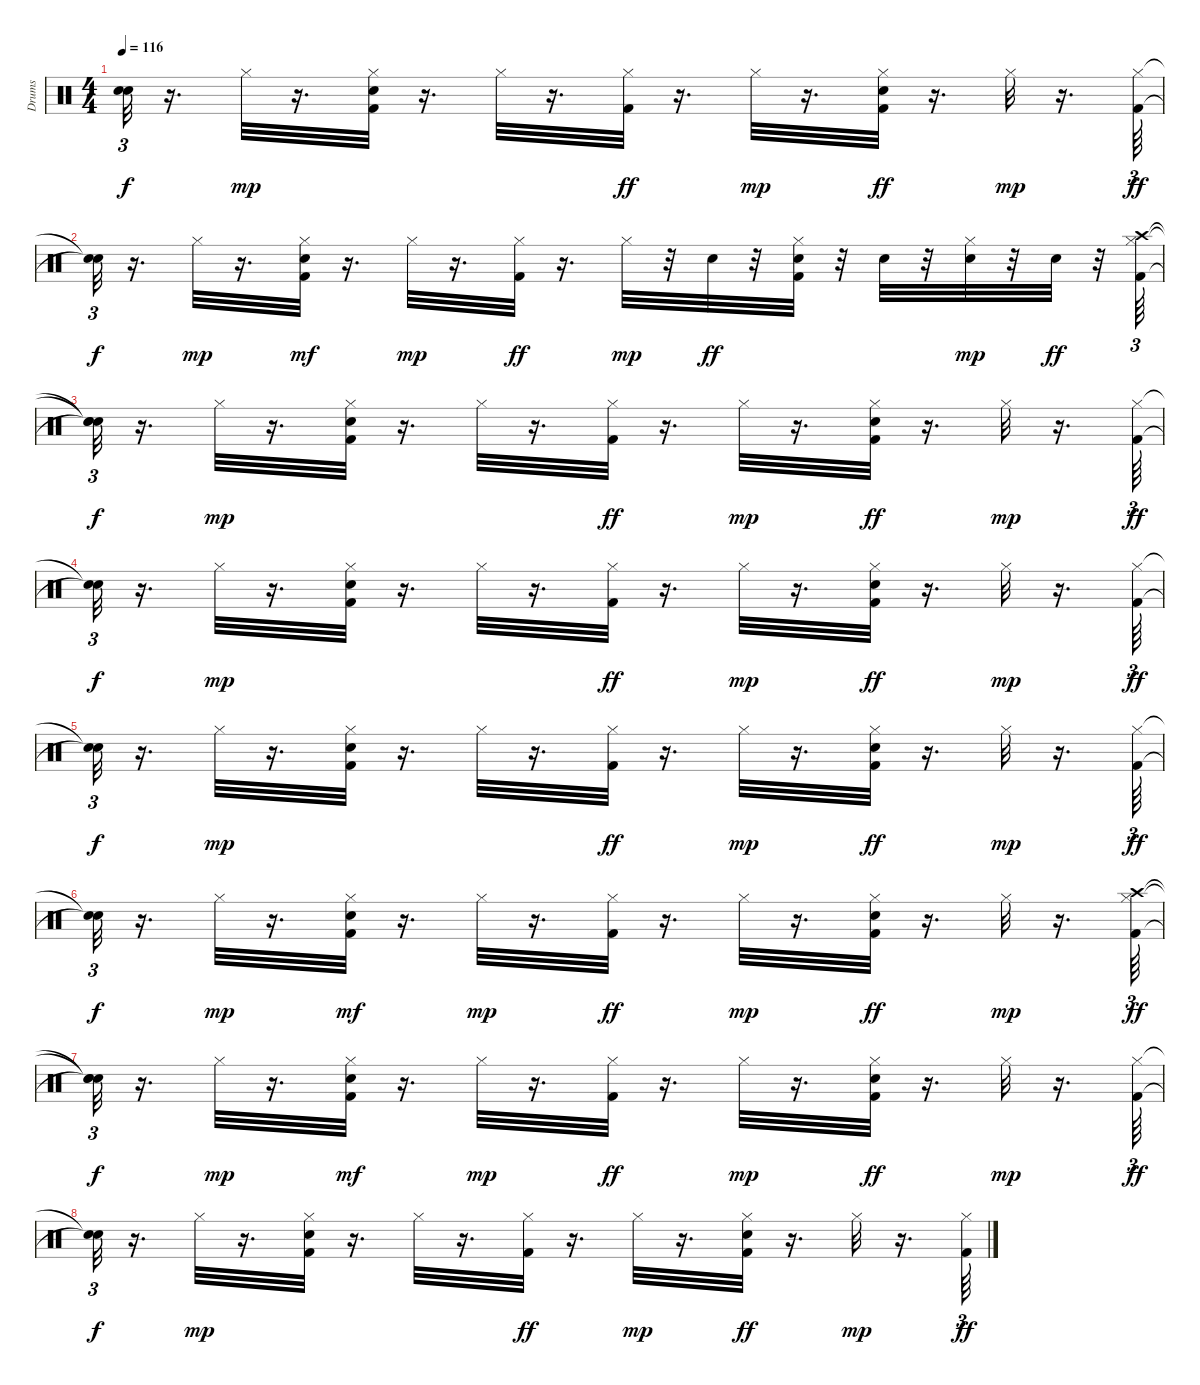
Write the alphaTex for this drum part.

\track ("Drums   " "Drums   ") {instrument percussion}
\staff {score}
\articulation defaults
\ts (4 4)
\tempo 116
\clef neutral
\ks c
("Snare (hit)"{t} "Snare (hit)"{t}).32{tu (3 2) dy f} r.16{d} "Hi-Hat (closed)".32{dy mp} r.16{d} ("Kick (hit) 2" "Snare (hit) 2" "Hi-Hat (closed)").32 r.16{d} "Hi-Hat (closed)".32 r.16{d} ("Hi-Hat (closed)" "Kick (hit) 2").32{dy ff} r.16{d} "Hi-Hat (closed)".32{dy mp} r.16{d} ("Kick (hit) 2" "Hi-Hat (closed)" "Snare (hit) 2").32{dy ff} r.16{d} "Hi-Hat (closed)".32{dy mp} r.16{d} ("Hi-Hat (closed)" "Kick (hit) 2").64{tu (3 2) dy ff} |
("Snare (hit)"{t} "Snare (hit)"{t}).32{tu (3 2) dy f} r.16{d} "Hi-Hat (closed)".32{dy mp} r.16{d} ("Kick (hit) 2" "Snare (hit) 2" "Hi-Hat (closed)").32{dy mf} r.16{d} "Hi-Hat (closed)".32{dy mp} r.16{d} ("Hi-Hat (closed)" "Kick (hit) 2").32{dy ff} r.16{d} "Hi-Hat (closed)".32{dy mp} r.32 "Snare (hit) 2".32{dy ff} r.32 ("Kick (hit) 2" "Hi-Hat (closed)" "Snare (hit) 2").32 r.32 "Snare (hit) 2".32 r.32 ("Snare (hit) 2" "Hi-Hat (closed)").32{dy mp} r.32 "Snare (hit) 2".32{dy ff} r.32 ("Crash high (hit)" "Hi-Hat (closed)" "Kick (hit) 2").64{tu (3 2)} |
("Snare (hit)"{t} "Snare (hit)"{t} "Snare (hit)"{t}).32{tu (3 2) dy f} r.16{d} "Hi-Hat (closed)".32{dy mp} r.16{d} ("Kick (hit) 2" "Snare (hit) 2" "Hi-Hat (closed)").32 r.16{d} "Hi-Hat (closed)".32 r.16{d} ("Hi-Hat (closed)" "Kick (hit) 2").32{dy ff} r.16{d} "Hi-Hat (closed)".32{dy mp} r.16{d} ("Kick (hit) 2" "Hi-Hat (closed)" "Snare (hit) 2").32{dy ff} r.16{d} "Hi-Hat (closed)".32{dy mp} r.16{d} ("Hi-Hat (closed)" "Kick (hit) 2").64{tu (3 2) dy ff} |
("Snare (hit)"{t} "Snare (hit)"{t}).32{tu (3 2) dy f} r.16{d} "Hi-Hat (closed)".32{dy mp} r.16{d} ("Kick (hit) 2" "Snare (hit) 2" "Hi-Hat (closed)").32 r.16{d} "Hi-Hat (closed)".32 r.16{d} ("Hi-Hat (closed)" "Kick (hit) 2").32{dy ff} r.16{d} "Hi-Hat (closed)".32{dy mp} r.16{d} ("Kick (hit) 2" "Hi-Hat (closed)" "Snare (hit) 2").32{dy ff} r.16{d} "Hi-Hat (closed)".32{dy mp} r.16{d} ("Hi-Hat (closed)" "Kick (hit) 2").64{tu (3 2) dy ff} |
("Snare (hit)"{t} "Snare (hit)"{t}).32{tu (3 2) dy f} r.16{d} "Hi-Hat (closed)".32{dy mp} r.16{d} ("Kick (hit) 2" "Snare (hit) 2" "Hi-Hat (closed)").32 r.16{d} "Hi-Hat (closed)".32 r.16{d} ("Hi-Hat (closed)" "Kick (hit) 2").32{dy ff} r.16{d} "Hi-Hat (closed)".32{dy mp} r.16{d} ("Kick (hit) 2" "Hi-Hat (closed)" "Snare (hit) 2").32{dy ff} r.16{d} "Hi-Hat (closed)".32{dy mp} r.16{d} ("Hi-Hat (closed)" "Kick (hit) 2").64{tu (3 2) dy ff} |
("Snare (hit)"{t} "Snare (hit)"{t}).32{tu (3 2) dy f} r.16{d} "Hi-Hat (closed)".32{dy mp} r.16{d} ("Kick (hit) 2" "Snare (hit) 2" "Hi-Hat (closed)").32{dy mf} r.16{d} "Hi-Hat (closed)".32{dy mp} r.16{d} ("Hi-Hat (closed)" "Kick (hit) 2").32{dy ff} r.16{d} "Hi-Hat (closed)".32{dy mp} r.16{d} ("Kick (hit) 2" "Hi-Hat (closed)" "Snare (hit) 2").32{dy ff} r.16{d} "Hi-Hat (closed)".32{dy mp} r.16{d} ("Crash high (hit)" "Hi-Hat (closed)" "Kick (hit) 2").64{tu (3 2) dy ff} |
("Snare (hit)"{t} "Snare (hit)"{t} "Snare (hit)"{t}).32{tu (3 2) dy f} r.16{d} "Hi-Hat (closed)".32{dy mp} r.16{d} ("Kick (hit) 2" "Snare (hit) 2" "Hi-Hat (closed)").32{dy mf} r.16{d} "Hi-Hat (closed)".32{dy mp} r.16{d} ("Hi-Hat (closed)" "Kick (hit) 2").32{dy ff} r.16{d} "Hi-Hat (closed)".32{dy mp} r.16{d} ("Kick (hit) 2" "Hi-Hat (closed)" "Snare (hit) 2").32{dy ff} r.16{d} "Hi-Hat (closed)".32{dy mp} r.16{d} ("Hi-Hat (closed)" "Kick (hit) 2").64{tu (3 2) dy ff} |
("Snare (hit)"{t} "Snare (hit)"{t}).32{tu (3 2) dy f} r.16{d} "Hi-Hat (closed)".32{dy mp} r.16{d} ("Kick (hit) 2" "Snare (hit) 2" "Hi-Hat (closed)").32 r.16{d} "Hi-Hat (closed)".32 r.16{d} ("Hi-Hat (closed)" "Kick (hit) 2").32{dy ff} r.16{d} "Hi-Hat (closed)".32{dy mp} r.16{d} ("Kick (hit) 2" "Hi-Hat (closed)" "Snare (hit) 2").32{dy ff} r.16{d} "Hi-Hat (closed)".32{dy mp} r.16{d} ("Hi-Hat (closed)" "Kick (hit) 2").64{tu (3 2) dy ff}
